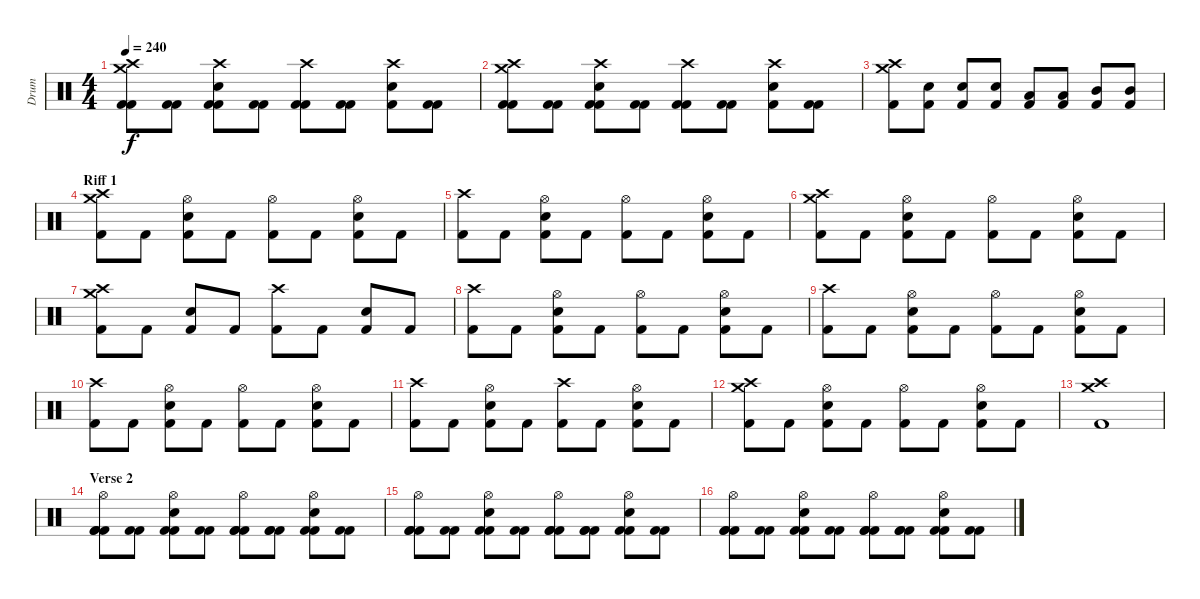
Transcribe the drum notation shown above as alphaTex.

\track ("Drum" "Drum") {instrument percussion}
\staff {score}
\articulation defaults
\ts (4 4)
\tempo 240
\clef neutral
\ks c
("Crash high (hit)" "Kick (hit) 2" "Crash medium (hit)" "Kick (hit) 2").8{dy f} ("Kick (hit) 2" "Kick (hit) 2").8 ("Crash high (hit)" "Kick (hit) 2" "Electric Snare (hit)" "Kick (hit) 2").8 ("Kick (hit) 2" "Kick (hit) 2").8 ("Crash high (hit)" "Kick (hit) 2" "Kick (hit) 2").8 ("Kick (hit) 2" "Kick (hit) 2").8 ("Crash high (hit)" "Kick (hit) 2" "Electric Snare (hit)").8 ("Kick (hit) 2" "Kick (hit) 2").8 |
("Crash high (hit)" "Kick (hit) 2" "Crash medium (hit)" "Kick (hit) 2").8 ("Kick (hit) 2" "Kick (hit) 2").8 ("Crash high (hit)" "Kick (hit) 2" "Electric Snare (hit)" "Kick (hit) 2").8 ("Kick (hit) 2" "Kick (hit) 2").8 ("Crash high (hit)" "Kick (hit) 2" "Kick (hit) 2").8 ("Kick (hit) 2" "Kick (hit) 2").8 ("Crash high (hit)" "Kick (hit) 2" "Electric Snare (hit)").8 ("Kick (hit) 2" "Kick (hit) 2").8 |
("Crash high (hit)" "Kick (hit) 2" "Crash medium (hit)").8 ("Kick (hit) 2" "Electric Snare (hit)").8 ("Kick (hit) 2" "Electric Snare (hit)").8 ("Kick (hit) 2" "Electric Snare (hit)").8 ("Kick (hit) 2" "Low Tom (hit)").8 ("Kick (hit) 2" "Low Tom (hit)").8 ("Kick (hit) 2" "Mid Tom (hit)").8 ("Kick (hit) 2" "Mid Tom (hit)").8 |
\section ("" "Riff 1")
("Crash high (hit)" "Kick (hit) 2" "Crash medium (hit)").8 "Kick (hit) 2".8 ("Hi-Hat (open)" "Kick (hit) 2" "Electric Snare (hit)").8 "Kick (hit) 2".8 ("Hi-Hat (open)" "Kick (hit) 2").8 "Kick (hit) 2".8 ("Hi-Hat (open)" "Kick (hit) 2" "Electric Snare (hit)").8 "Kick (hit) 2".8 |
("Crash high (hit)" "Kick (hit) 2").8 "Kick (hit) 2".8 ("Hi-Hat (open)" "Kick (hit) 2" "Electric Snare (hit)").8 "Kick (hit) 2".8 ("Hi-Hat (open)" "Kick (hit) 2").8 "Kick (hit) 2".8 ("Hi-Hat (open)" "Kick (hit) 2" "Electric Snare (hit)").8 "Kick (hit) 2".8 |
("Crash high (hit)" "Kick (hit) 2" "Crash medium (hit)").8 "Kick (hit) 2".8 ("Hi-Hat (open)" "Kick (hit) 2" "Electric Snare (hit)").8 "Kick (hit) 2".8 ("Hi-Hat (open)" "Kick (hit) 2").8 "Kick (hit) 2".8 ("Hi-Hat (open)" "Kick (hit) 2" "Electric Snare (hit)").8 "Kick (hit) 2".8 |
("Crash high (hit)" "Kick (hit) 2" "Crash medium (hit)").8 "Kick (hit) 2".8 ("Kick (hit) 2" "Electric Snare (hit)").8 "Kick (hit) 2".8 ("Crash high (hit)" "Kick (hit) 2").8 "Kick (hit) 2".8 ("Kick (hit) 2" "Electric Snare (hit)").8 "Kick (hit) 2".8 |
("Crash high (hit)" "Kick (hit) 2").8 "Kick (hit) 2".8 ("Hi-Hat (open)" "Kick (hit) 2" "Electric Snare (hit)").8 "Kick (hit) 2".8 ("Hi-Hat (open)" "Kick (hit) 2").8 "Kick (hit) 2".8 ("Hi-Hat (open)" "Kick (hit) 2" "Electric Snare (hit)").8 "Kick (hit) 2".8 |
("Crash high (hit)" "Kick (hit) 2").8 "Kick (hit) 2".8 ("Hi-Hat (open)" "Kick (hit) 2" "Electric Snare (hit)").8 "Kick (hit) 2".8 ("Hi-Hat (open)" "Kick (hit) 2").8 "Kick (hit) 2".8 ("Hi-Hat (open)" "Kick (hit) 2" "Electric Snare (hit)").8 "Kick (hit) 2".8 |
("Crash high (hit)" "Kick (hit) 2").8 "Kick (hit) 2".8 ("Hi-Hat (open)" "Kick (hit) 2" "Electric Snare (hit)").8 "Kick (hit) 2".8 ("Hi-Hat (open)" "Kick (hit) 2").8 "Kick (hit) 2".8 ("Hi-Hat (open)" "Kick (hit) 2" "Electric Snare (hit)").8 "Kick (hit) 2".8 |
("Crash high (hit)" "Kick (hit) 2").8 "Kick (hit) 2".8 ("Hi-Hat (open)" "Kick (hit) 2" "Electric Snare (hit)").8 "Kick (hit) 2".8 ("Crash high (hit)" "Kick (hit) 2").8 "Kick (hit) 2".8 ("Hi-Hat (open)" "Kick (hit) 2" "Electric Snare (hit)").8 "Kick (hit) 2".8 |
("Crash high (hit)" "Kick (hit) 2" "Crash medium (hit)").8 "Kick (hit) 2".8 ("Hi-Hat (open)" "Kick (hit) 2" "Electric Snare (hit)").8 "Kick (hit) 2".8 ("Hi-Hat (open)" "Kick (hit) 2").8 "Kick (hit) 2".8 ("Hi-Hat (open)" "Kick (hit) 2" "Electric Snare (hit)").8 "Kick (hit) 2".8 |
("Crash high (hit)" "Kick (hit) 2" "Crash medium (hit)").1 |
\section ("" "Verse 2")
("Hi-Hat (open)" "Kick (hit) 2" "Kick (hit) 2" "Kick (hit) 2").8 ("Kick (hit) 2" "Kick (hit) 2").8 ("Hi-Hat (open)" "Electric Snare (hit)" "Kick (hit) 2" "Kick (hit) 2").8 ("Kick (hit) 2" "Kick (hit) 2").8 ("Hi-Hat (open)" "Kick (hit) 2" "Kick (hit) 2" "Kick (hit) 2").8 ("Kick (hit) 2" "Kick (hit) 2" "Kick (hit) 2").8 ("Hi-Hat (open)" "Electric Snare (hit)" "Kick (hit) 2" "Kick (hit) 2").8 ("Kick (hit) 2" "Kick (hit) 2").8 |
("Hi-Hat (open)" "Kick (hit) 2" "Kick (hit) 2" "Kick (hit) 2").8 ("Kick (hit) 2" "Kick (hit) 2").8 ("Hi-Hat (open)" "Electric Snare (hit)" "Kick (hit) 2" "Kick (hit) 2").8 ("Kick (hit) 2" "Kick (hit) 2").8 ("Hi-Hat (open)" "Kick (hit) 2" "Kick (hit) 2" "Kick (hit) 2").8 ("Kick (hit) 2" "Kick (hit) 2" "Kick (hit) 2").8 ("Hi-Hat (open)" "Electric Snare (hit)" "Kick (hit) 2" "Kick (hit) 2").8 ("Kick (hit) 2" "Kick (hit) 2").8 |
("Hi-Hat (open)" "Kick (hit) 2" "Kick (hit) 2" "Kick (hit) 2").8 ("Kick (hit) 2" "Kick (hit) 2").8 ("Hi-Hat (open)" "Electric Snare (hit)" "Kick (hit) 2" "Kick (hit) 2").8 ("Kick (hit) 2" "Kick (hit) 2").8 ("Hi-Hat (open)" "Kick (hit) 2" "Kick (hit) 2" "Kick (hit) 2").8 ("Kick (hit) 2" "Kick (hit) 2" "Kick (hit) 2").8 ("Hi-Hat (open)" "Electric Snare (hit)" "Kick (hit) 2" "Kick (hit) 2").8 ("Kick (hit) 2" "Kick (hit) 2").8
